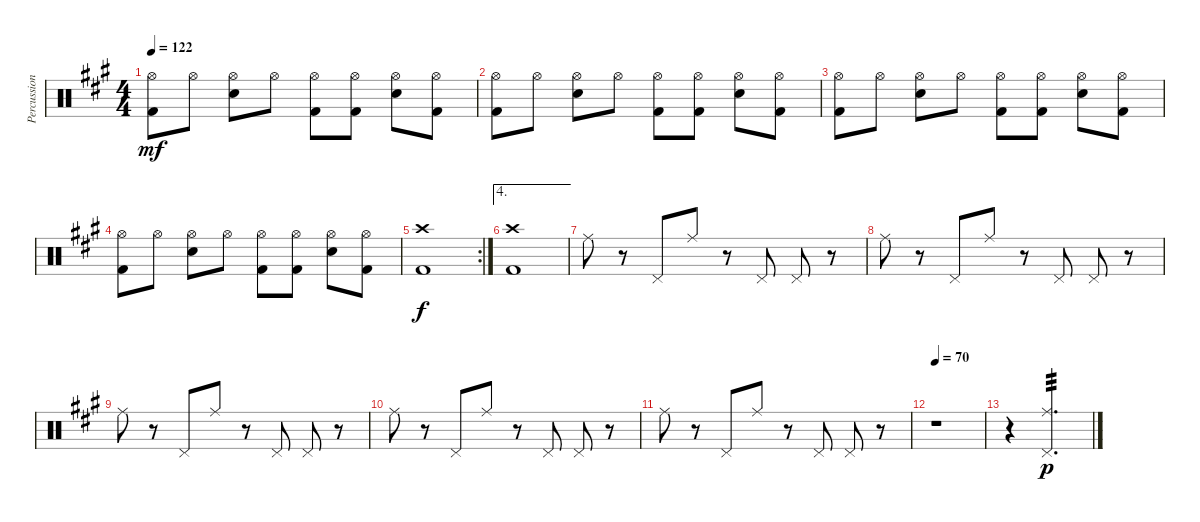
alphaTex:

\track ("Percussion" "Percussion") {instrument percussion}
\staff {score}
\articulation defaults
\ts (4 4)
\tempo 122
\clef neutral
\ks a
("Hi-Hat (open)" "Kick (hit) 2").8{dy mf} "Hi-Hat (open)".8 ("Hi-Hat (open)" "Snare (hit) 2").8 "Hi-Hat (open)".8 ("Hi-Hat (open)" "Kick (hit) 2").8 ("Hi-Hat (open)" "Kick (hit) 2").8 ("Hi-Hat (open)" "Snare (hit) 2").8 ("Hi-Hat (open)" "Kick (hit) 2").8 |
("Hi-Hat (open)" "Kick (hit) 2").8 "Hi-Hat (open)".8 ("Hi-Hat (open)" "Snare (hit) 2").8 "Hi-Hat (open)".8 ("Hi-Hat (open)" "Kick (hit) 2").8 ("Hi-Hat (open)" "Kick (hit) 2").8 ("Hi-Hat (open)" "Snare (hit) 2").8 ("Hi-Hat (open)" "Kick (hit) 2").8 |
("Hi-Hat (open)" "Kick (hit) 2").8 "Hi-Hat (open)".8 ("Hi-Hat (open)" "Snare (hit) 2").8 "Hi-Hat (open)".8 ("Hi-Hat (open)" "Kick (hit) 2").8 ("Hi-Hat (open)" "Kick (hit) 2").8 ("Hi-Hat (open)" "Snare (hit) 2").8 ("Hi-Hat (open)" "Kick (hit) 2").8 |
("Hi-Hat (open)" "Kick (hit) 2").8 "Hi-Hat (open)".8 ("Hi-Hat (open)" "Snare (hit) 2").8 "Hi-Hat (open)".8 ("Hi-Hat (open)" "Kick (hit) 2").8 ("Hi-Hat (open)" "Kick (hit) 2").8 ("Hi-Hat (open)" "Snare (hit) 2").8 ("Hi-Hat (open)" "Kick (hit) 2").8 |
\rc 2
("Crash high (hit)" "Kick (hit) 2").1{dy f} |
\ae 4
("Crash high (hit)" "Kick (hit) 2").1 |
"Ride (middle)".8 r.8 "Pedal Hi-Hat (hit)".8 "Ride (middle)".8 r.8 "Pedal Hi-Hat (hit)".8 "Pedal Hi-Hat (hit)".8 r.8 |
"Ride (middle)".8 r.8 "Pedal Hi-Hat (hit)".8 "Ride (middle)".8 r.8 "Pedal Hi-Hat (hit)".8 "Pedal Hi-Hat (hit)".8 r.8 |
"Ride (middle)".8 r.8 "Pedal Hi-Hat (hit)".8 "Ride (middle)".8 r.8 "Pedal Hi-Hat (hit)".8 "Pedal Hi-Hat (hit)".8 r.8 |
"Ride (middle)".8 r.8 "Pedal Hi-Hat (hit)".8 "Ride (middle)".8 r.8 "Pedal Hi-Hat (hit)".8 "Pedal Hi-Hat (hit)".8 r.8 |
"Ride (middle)".8 r.8 "Pedal Hi-Hat (hit)".8 "Ride (middle)".8 r.8 "Pedal Hi-Hat (hit)".8 "Pedal Hi-Hat (hit)".8 r.8 |
\tempo 70
r.1 |
r.4 ("Ride (middle)" "Pedal Hi-Hat (hit)").2{d tp 3 dy p}
